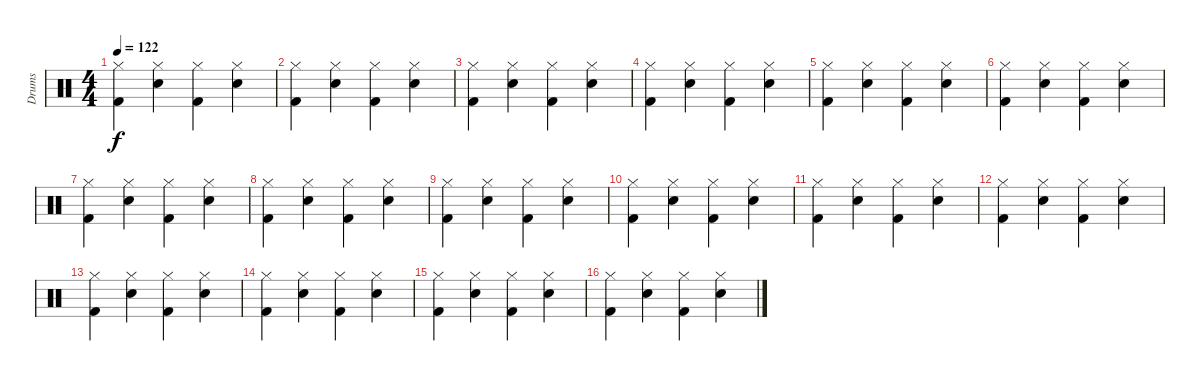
\track ("Drums" "Drums") {instrument percussion}
\staff {score}
\articulation defaults
\ts (4 4)
\tempo 122
\clef neutral
\ks c
("Hi-Hat (closed)" "Kick (hit) 2").4{dy f} ("Hi-Hat (closed)" "Snare (hit) 2").4 ("Hi-Hat (closed)" "Kick (hit) 2").4 ("Hi-Hat (closed)" "Snare (hit) 2").4 |
("Hi-Hat (closed)" "Kick (hit) 2").4 ("Hi-Hat (closed)" "Snare (hit) 2").4 ("Hi-Hat (closed)" "Kick (hit) 2").4 ("Hi-Hat (closed)" "Snare (hit) 2").4 |
("Hi-Hat (closed)" "Kick (hit) 2").4 ("Hi-Hat (closed)" "Snare (hit) 2").4 ("Hi-Hat (closed)" "Kick (hit) 2").4 ("Hi-Hat (closed)" "Snare (hit) 2").4 |
("Hi-Hat (closed)" "Kick (hit) 2").4 ("Hi-Hat (closed)" "Snare (hit) 2").4 ("Hi-Hat (closed)" "Kick (hit) 2").4 ("Hi-Hat (closed)" "Snare (hit) 2").4 |
("Hi-Hat (closed)" "Kick (hit) 2").4 ("Hi-Hat (closed)" "Snare (hit) 2").4 ("Hi-Hat (closed)" "Kick (hit) 2").4 ("Hi-Hat (closed)" "Snare (hit) 2").4 |
("Hi-Hat (closed)" "Kick (hit) 2").4 ("Hi-Hat (closed)" "Snare (hit) 2").4 ("Hi-Hat (closed)" "Kick (hit) 2").4 ("Hi-Hat (closed)" "Snare (hit) 2").4 |
("Hi-Hat (closed)" "Kick (hit) 2").4 ("Hi-Hat (closed)" "Snare (hit) 2").4 ("Hi-Hat (closed)" "Kick (hit) 2").4 ("Hi-Hat (closed)" "Snare (hit) 2").4 |
("Hi-Hat (closed)" "Kick (hit) 2").4 ("Hi-Hat (closed)" "Snare (hit) 2").4 ("Hi-Hat (closed)" "Kick (hit) 2").4 ("Hi-Hat (closed)" "Snare (hit) 2").4 |
("Hi-Hat (closed)" "Kick (hit) 2").4 ("Hi-Hat (closed)" "Snare (hit) 2").4 ("Hi-Hat (closed)" "Kick (hit) 2").4 ("Hi-Hat (closed)" "Snare (hit) 2").4 |
("Hi-Hat (closed)" "Kick (hit) 2").4 ("Hi-Hat (closed)" "Snare (hit) 2").4 ("Hi-Hat (closed)" "Kick (hit) 2").4 ("Hi-Hat (closed)" "Snare (hit) 2").4 |
("Hi-Hat (closed)" "Kick (hit) 2").4 ("Hi-Hat (closed)" "Snare (hit) 2").4 ("Hi-Hat (closed)" "Kick (hit) 2").4 ("Hi-Hat (closed)" "Snare (hit) 2").4 |
("Hi-Hat (closed)" "Kick (hit) 2").4 ("Hi-Hat (closed)" "Snare (hit) 2").4 ("Hi-Hat (closed)" "Kick (hit) 2").4 ("Hi-Hat (closed)" "Snare (hit) 2").4 |
("Hi-Hat (closed)" "Kick (hit) 2").4 ("Hi-Hat (closed)" "Snare (hit) 2").4 ("Hi-Hat (closed)" "Kick (hit) 2").4 ("Hi-Hat (closed)" "Snare (hit) 2").4 |
("Hi-Hat (closed)" "Kick (hit) 2").4 ("Hi-Hat (closed)" "Snare (hit) 2").4 ("Hi-Hat (closed)" "Kick (hit) 2").4 ("Hi-Hat (closed)" "Snare (hit) 2").4 |
("Hi-Hat (closed)" "Kick (hit) 2").4 ("Hi-Hat (closed)" "Snare (hit) 2").4 ("Hi-Hat (closed)" "Kick (hit) 2").4 ("Hi-Hat (closed)" "Snare (hit) 2").4 |
("Hi-Hat (closed)" "Kick (hit) 2").4 ("Hi-Hat (closed)" "Snare (hit) 2").4 ("Hi-Hat (closed)" "Kick (hit) 2").4 ("Hi-Hat (closed)" "Snare (hit) 2").4
